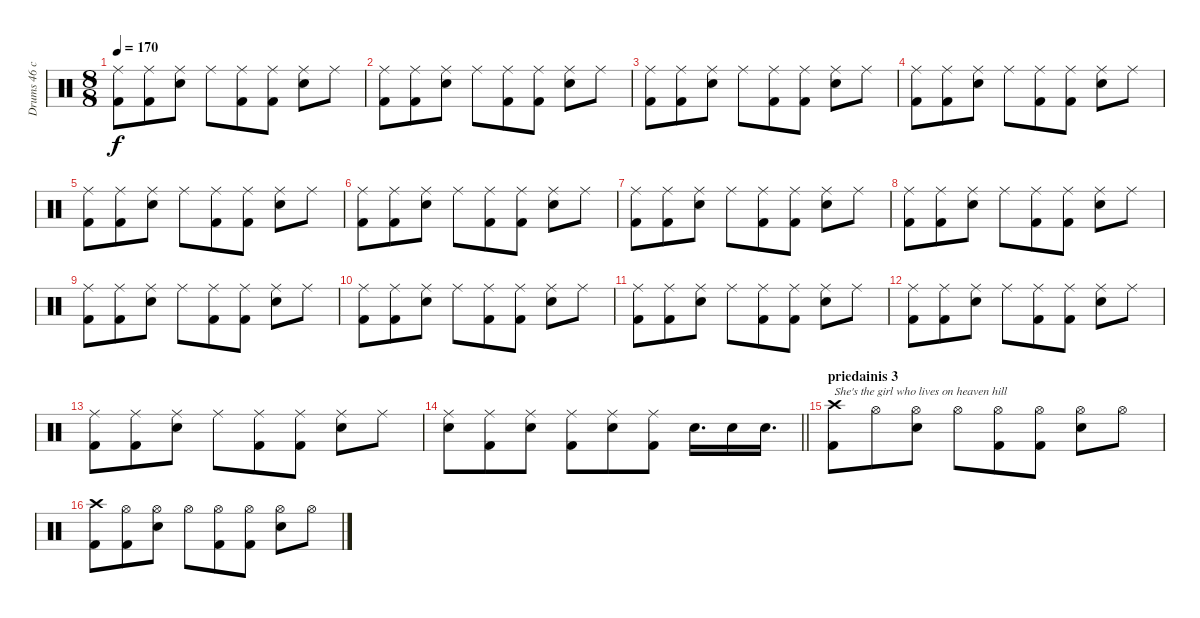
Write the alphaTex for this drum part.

\track ("Drums 46 chorus" "Drums 46 c") {mute instrument percussion}
\staff {score}
\articulation defaults
\ts (8 8)
\tempo 170
\clef neutral
\ks c
("Ride (middle)" "Kick (hit) 2").8{dy f} ("Ride (middle)" "Kick (hit) 2").8 ("Ride (middle)" "Snare (hit) 2").8 "Ride (middle)".8 ("Ride (middle)" "Kick (hit) 2").8 ("Ride (middle)" "Kick (hit) 2").8 ("Ride (middle)" "Snare (hit) 2").8 "Ride (middle)".8 |
("Ride (middle)" "Kick (hit) 2").8 ("Ride (middle)" "Kick (hit) 2").8 ("Ride (middle)" "Snare (hit) 2").8 "Ride (middle)".8 ("Ride (middle)" "Kick (hit) 2").8 ("Ride (middle)" "Kick (hit) 2").8 ("Ride (middle)" "Snare (hit) 2").8 "Ride (middle)".8 |
("Ride (middle)" "Kick (hit) 2").8 ("Ride (middle)" "Kick (hit) 2").8 ("Ride (middle)" "Snare (hit) 2").8 "Ride (middle)".8 ("Ride (middle)" "Kick (hit) 2").8 ("Ride (middle)" "Kick (hit) 2").8 ("Ride (middle)" "Snare (hit) 2").8 "Ride (middle)".8 |
("Ride (middle)" "Kick (hit) 2").8 ("Ride (middle)" "Kick (hit) 2").8 ("Ride (middle)" "Snare (hit) 2").8 "Ride (middle)".8 ("Ride (middle)" "Kick (hit) 2").8 ("Ride (middle)" "Kick (hit) 2").8 ("Ride (middle)" "Snare (hit) 2").8 "Ride (middle)".8 |
("Ride (middle)" "Kick (hit) 2").8 ("Ride (middle)" "Kick (hit) 2").8 ("Ride (middle)" "Snare (hit) 2").8 "Ride (middle)".8 ("Ride (middle)" "Kick (hit) 2").8 ("Ride (middle)" "Kick (hit) 2").8 ("Ride (middle)" "Snare (hit) 2").8 "Ride (middle)".8 |
("Ride (middle)" "Kick (hit) 2").8 ("Ride (middle)" "Kick (hit) 2").8 ("Ride (middle)" "Snare (hit) 2").8 "Ride (middle)".8 ("Ride (middle)" "Kick (hit) 2").8 ("Ride (middle)" "Kick (hit) 2").8 ("Ride (middle)" "Snare (hit) 2").8 "Ride (middle)".8 |
("Ride (middle)" "Kick (hit) 2").8 ("Ride (middle)" "Kick (hit) 2").8 ("Ride (middle)" "Snare (hit) 2").8 "Ride (middle)".8 ("Ride (middle)" "Kick (hit) 2").8 ("Ride (middle)" "Kick (hit) 2").8 ("Ride (middle)" "Snare (hit) 2").8 "Ride (middle)".8 |
("Ride (middle)" "Kick (hit) 2").8 ("Ride (middle)" "Kick (hit) 2").8 ("Ride (middle)" "Snare (hit) 2").8 "Ride (middle)".8 ("Ride (middle)" "Kick (hit) 2").8 ("Ride (middle)" "Kick (hit) 2").8 ("Ride (middle)" "Snare (hit) 2").8 "Ride (middle)".8 |
("Ride (middle)" "Kick (hit) 2").8 ("Ride (middle)" "Kick (hit) 2").8 ("Ride (middle)" "Snare (hit) 2").8 "Ride (middle)".8 ("Ride (middle)" "Kick (hit) 2").8 ("Ride (middle)" "Kick (hit) 2").8 ("Ride (middle)" "Snare (hit) 2").8 "Ride (middle)".8 |
("Ride (middle)" "Kick (hit) 2").8 ("Ride (middle)" "Kick (hit) 2").8 ("Ride (middle)" "Snare (hit) 2").8 "Ride (middle)".8 ("Ride (middle)" "Kick (hit) 2").8 ("Ride (middle)" "Kick (hit) 2").8 ("Ride (middle)" "Snare (hit) 2").8 "Ride (middle)".8 |
("Ride (middle)" "Kick (hit) 2").8 ("Ride (middle)" "Kick (hit) 2").8 ("Ride (middle)" "Snare (hit) 2").8 "Ride (middle)".8 ("Ride (middle)" "Kick (hit) 2").8 ("Ride (middle)" "Kick (hit) 2").8 ("Ride (middle)" "Snare (hit) 2").8 "Ride (middle)".8 |
("Ride (middle)" "Kick (hit) 2").8 ("Ride (middle)" "Kick (hit) 2").8 ("Ride (middle)" "Snare (hit) 2").8 "Ride (middle)".8 ("Ride (middle)" "Kick (hit) 2").8 ("Ride (middle)" "Kick (hit) 2").8 ("Ride (middle)" "Snare (hit) 2").8 "Ride (middle)".8 |
("Ride (middle)" "Kick (hit) 2").8 ("Ride (middle)" "Kick (hit) 2").8 ("Ride (middle)" "Snare (hit) 2").8 "Ride (middle)".8 ("Ride (middle)" "Kick (hit) 2").8 ("Ride (middle)" "Kick (hit) 2").8 ("Ride (middle)" "Snare (hit) 2").8 "Ride (middle)".8 |
\barLineRight lightlight
("Ride (middle)" "Snare (hit) 2").8 ("Ride (middle)" "Kick (hit) 2").8 ("Ride (middle)" "Snare (hit) 2").8 ("Ride (middle)" "Kick (hit) 2").8 ("Ride (middle)" "Snare (hit) 2").8 ("Ride (middle)" "Kick (hit) 2").8 "Snare (hit) 2".16{d} "Snare (hit) 2".16 "Snare (hit) 2".16{d} |
\section ("" "priedainis 3")
("Crash high (hit)" "Kick (hit) 2").8{txt "She's the girl who lives on heaven hill"} "Hi-Hat (open)".8 ("Hi-Hat (open)" "Snare (hit) 2").8 "Hi-Hat (open)".8 ("Hi-Hat (open)" "Kick (hit) 2").8 ("Hi-Hat (open)" "Kick (hit) 2").8 ("Hi-Hat (open)" "Snare (hit) 2").8 "Hi-Hat (open)".8 |
("Crash high (hit)" "Kick (hit) 2").8 ("Hi-Hat (open)" "Kick (hit) 2").8 ("Hi-Hat (open)" "Snare (hit) 2").8 "Hi-Hat (open)".8 ("Hi-Hat (open)" "Kick (hit) 2").8 ("Hi-Hat (open)" "Kick (hit) 2").8 ("Hi-Hat (open)" "Snare (hit) 2").8 "Hi-Hat (open)".8
